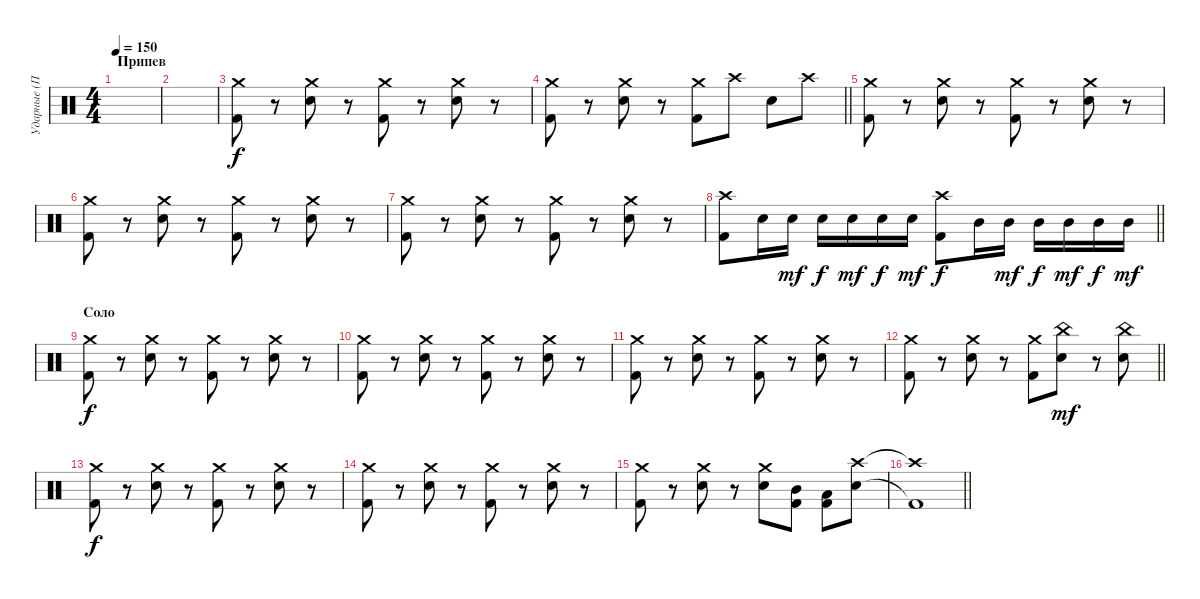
\track ("Ударные (Поручик)" "Ударные (П") {instrument percussion}
\staff {score}
\articulation defaults
\ts (4 4)
\section ("" "Припев")
\tempo 150
\clef neutral
\ks c
|
|
("Crash medium (hit)" "Kick (hit) 2").8 r.8 ("Crash medium (hit)" "Snare (hit) 2").8 r.8 ("Crash medium (hit)" "Kick (hit) 2").8 r.8 ("Crash medium (hit)" "Snare (hit) 2").8 r.8 |
\barLineRight lightlight
("Crash medium (hit)" "Kick (hit) 2").8 r.8 ("Crash medium (hit)" "Snare (hit) 2").8 r.8 ("Crash medium (hit)" "Kick (hit) 2").8 "Crash high (hit)".8 "Snare (hit) 2".8 "Crash high (hit)".8 |
("Crash medium (hit)" "Kick (hit) 2").8 r.8 ("Crash medium (hit)" "Snare (hit) 2").8 r.8 ("Crash medium (hit)" "Kick (hit) 2").8 r.8 ("Crash medium (hit)" "Snare (hit) 2").8 r.8 |
("Crash medium (hit)" "Kick (hit) 2").8 r.8 ("Crash medium (hit)" "Snare (hit) 2").8 r.8 ("Crash medium (hit)" "Kick (hit) 2").8 r.8 ("Crash medium (hit)" "Snare (hit) 2").8 r.8 |
("Crash medium (hit)" "Kick (hit) 2").8 r.8 ("Crash medium (hit)" "Snare (hit) 2").8 r.8 ("Crash medium (hit)" "Kick (hit) 2").8 r.8 ("Crash medium (hit)" "Snare (hit) 2").8 r.8 |
\barLineRight lightlight
("Crash high (hit)" "Kick (hit) 2").8 "Snare (hit) 2".16 "Snare (hit) 2".16{dy mf} "Snare (hit) 2".16{dy f} "Snare (hit) 2".16{dy mf} "Snare (hit) 2".16{dy f} "Snare (hit) 2".16{dy mf} ("Crash high (hit)" "Kick (hit) 2").8{dy f} "Mid Tom (hit)".16 "Mid Tom (hit)".16{dy mf} "Mid Tom (hit)".16{dy f} "Mid Tom (hit)".16{dy mf} "Mid Tom (hit)".16{dy f} "Mid Tom (hit)".16{dy mf} |
\section ("" "Соло")
("Crash medium (hit)" "Kick (hit) 2").8{dy f} r.8 ("Crash medium (hit)" "Snare (hit) 2").8 r.8 ("Crash medium (hit)" "Kick (hit) 2").8 r.8 ("Crash medium (hit)" "Snare (hit) 2").8 r.8 |
("Crash medium (hit)" "Kick (hit) 2").8 r.8 ("Crash medium (hit)" "Snare (hit) 2").8 r.8 ("Crash medium (hit)" "Kick (hit) 2").8 r.8 ("Crash medium (hit)" "Snare (hit) 2").8 r.8 |
("Crash medium (hit)" "Kick (hit) 2").8 r.8 ("Crash medium (hit)" "Snare (hit) 2").8 r.8 ("Crash medium (hit)" "Kick (hit) 2").8 r.8 ("Crash medium (hit)" "Snare (hit) 2").8 r.8 |
\barLineRight lightlight
("Crash medium (hit)" "Kick (hit) 2").8 r.8 ("Crash medium (hit)" "Snare (hit) 2").8 r.8 ("Crash medium (hit)" "Kick (hit) 2").8 ("China (hit)" "Snare (hit) 2").8{dy mf} r.8 ("China (hit)" "Snare (hit) 2").8 |
("Crash medium (hit)" "Kick (hit) 2").8{dy f} r.8 ("Crash medium (hit)" "Snare (hit) 2").8 r.8 ("Crash medium (hit)" "Kick (hit) 2").8 r.8 ("Crash medium (hit)" "Snare (hit) 2").8 r.8 |
("Crash medium (hit)" "Kick (hit) 2").8 r.8 ("Crash medium (hit)" "Snare (hit) 2").8 r.8 ("Crash medium (hit)" "Kick (hit) 2").8 r.8 ("Crash medium (hit)" "Snare (hit) 2").8 r.8 |
("Crash medium (hit)" "Kick (hit) 2").8 r.8 ("Crash medium (hit)" "Snare (hit) 2").8 r.8 ("Crash medium (hit)" "Snare (hit) 2").8 ("Mid Tom (hit)" "Kick (hit) 2").8 ("Low Tom (hit)" "Kick (hit) 2").8 ("Crash high (hit)" "Snare (hit) 2").8 |
\barLineRight lightlight
("Crash high (hit)"{t} "Kick (hit) 2"{t}).1
